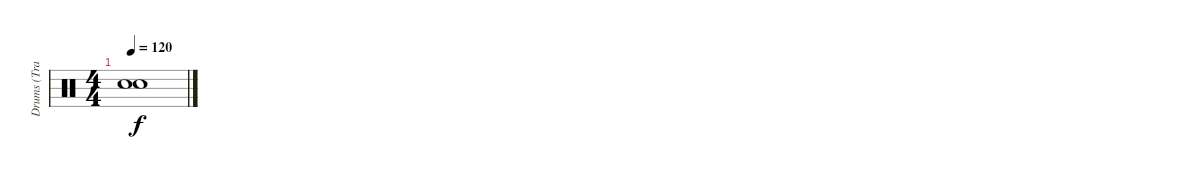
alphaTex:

\track ("Drums (Travis Barker)" "Drums (Tra") {instrument percussion}
\staff {score}
\articulation defaults
\ts (4 4)
\tempo 120
\clef neutral
\ks c
("Snare (hit)"{t} "Snare (hit)"{t}).1{dy f}
